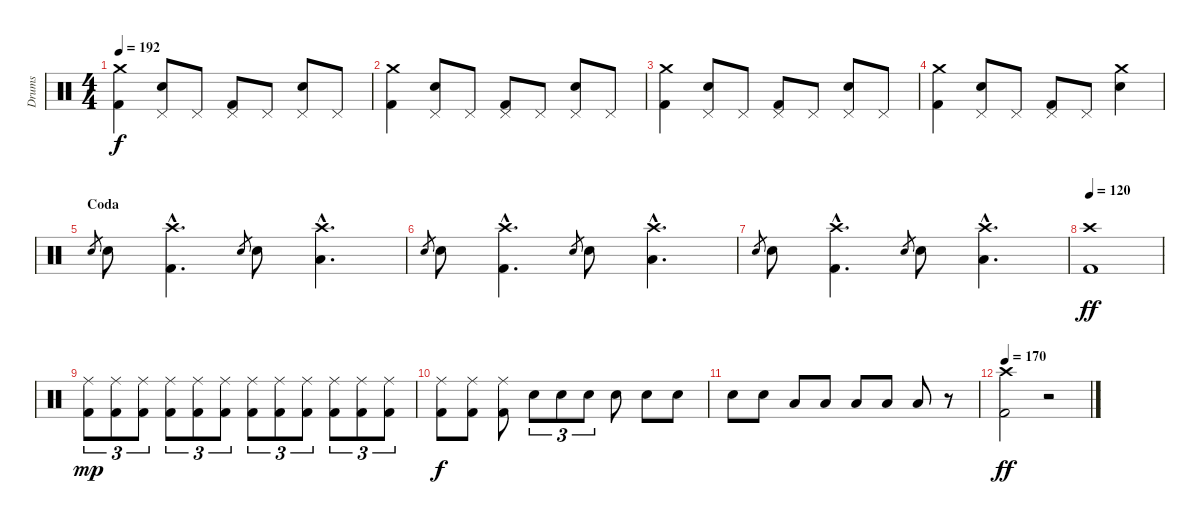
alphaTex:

\track ("Drums" "Drums") {instrument percussion}
\staff {score}
\articulation defaults
\ts (4 4)
\tempo 192
\clef neutral
\ks c
("Crash medium (hit)" "Kick (hit) 2").4{dy f} ("Pedal Hi-Hat (hit)" "Electric Snare (hit)").8 "Pedal Hi-Hat (hit)".8 ("Pedal Hi-Hat (hit)" "Kick (hit) 2").8 "Pedal Hi-Hat (hit)".8 ("Pedal Hi-Hat (hit)" "Electric Snare (hit)").8 "Pedal Hi-Hat (hit)".8 |
("Crash medium (hit)" "Kick (hit) 2").4 ("Pedal Hi-Hat (hit)" "Electric Snare (hit)").8 "Pedal Hi-Hat (hit)".8 ("Pedal Hi-Hat (hit)" "Kick (hit) 2").8 "Pedal Hi-Hat (hit)".8 ("Pedal Hi-Hat (hit)" "Electric Snare (hit)").8 "Pedal Hi-Hat (hit)".8 |
("Crash medium (hit)" "Kick (hit) 2").4 ("Pedal Hi-Hat (hit)" "Electric Snare (hit)").8 "Pedal Hi-Hat (hit)".8 ("Pedal Hi-Hat (hit)" "Kick (hit) 2").8 "Pedal Hi-Hat (hit)".8 ("Pedal Hi-Hat (hit)" "Electric Snare (hit)").8 "Pedal Hi-Hat (hit)".8 |
("Crash medium (hit)" "Kick (hit) 2").4 ("Pedal Hi-Hat (hit)" "Electric Snare (hit)").8 "Pedal Hi-Hat (hit)".8 ("Pedal Hi-Hat (hit)" "Kick (hit) 2").8 "Pedal Hi-Hat (hit)".8 ("Crash medium (hit)" "Electric Snare (hit)").4 |
\section ("" "Coda")
"Electric Snare (hit)".8{gr} "Electric Snare (hit)".8 ("Crash high (hit)"{hac} "Kick (hit) 2"{hac}).4{d} "Electric Snare (hit)".8{gr} "Electric Snare (hit)".8 ("Crash high (hit)"{hac} "Low Tom (hit)"{hac}).4{d} |
"Electric Snare (hit)".8{gr} "Electric Snare (hit)".8 ("Crash high (hit)"{hac} "Kick (hit) 2"{hac}).4{d} "Electric Snare (hit)".8{gr} "Electric Snare (hit)".8 ("Crash high (hit)"{hac} "Low Tom (hit)"{hac}).4{d} |
"Electric Snare (hit)".8{gr} "Electric Snare (hit)".8 ("Crash high (hit)"{hac} "Kick (hit) 2"{hac}).4{d} "Electric Snare (hit)".8{gr} "Electric Snare (hit)".8 ("Crash high (hit)"{hac} "Low Tom (hit)"{hac}).4{d} |
\tempo 120
("Crash high (hit)" "Kick (hit) 2").1{dy ff} |
("Ride (middle)" "Kick (hit) 2").8{tu (3 2) dy mp} ("Ride (middle)" "Kick (hit) 2").8{tu (3 2)} ("Ride (middle)" "Kick (hit) 2").8{tu (3 2)} ("Ride (middle)" "Kick (hit) 2").8{tu (3 2)} ("Ride (middle)" "Kick (hit) 2").8{tu (3 2)} ("Ride (middle)" "Kick (hit) 2").8{tu (3 2)} ("Ride (middle)" "Kick (hit) 2").8{tu (3 2)} ("Ride (middle)" "Kick (hit) 2").8{tu (3 2)} ("Ride (middle)" "Kick (hit) 2").8{tu (3 2)} ("Ride (middle)" "Kick (hit) 2").8{tu (3 2)} ("Ride (middle)" "Kick (hit) 2").8{tu (3 2)} ("Ride (middle)" "Kick (hit) 2").8{tu (3 2)} |
("Ride (middle)" "Kick (hit) 2").8{dy f} ("Ride (middle)" "Kick (hit) 2").8 ("Ride (middle)" "Kick (hit) 2").8 "Electric Snare (hit)".8{tu (3 2)} "Electric Snare (hit)".8{tu (3 2)} "Electric Snare (hit)".8{tu (3 2)} "Electric Snare (hit)".8 "Electric Snare (hit)".8 "Electric Snare (hit)".8 |
"Electric Snare (hit)".8 "Electric Snare (hit)".8 "Low Tom (hit)".8 "Low Tom (hit)".8 "Low Tom (hit)".8 "Low Tom (hit)".8 "Low Tom (hit)".8 r.8 |
\tempo 170
("Crash high (hit)" "Kick (hit) 2").2{dy ff} r.2
